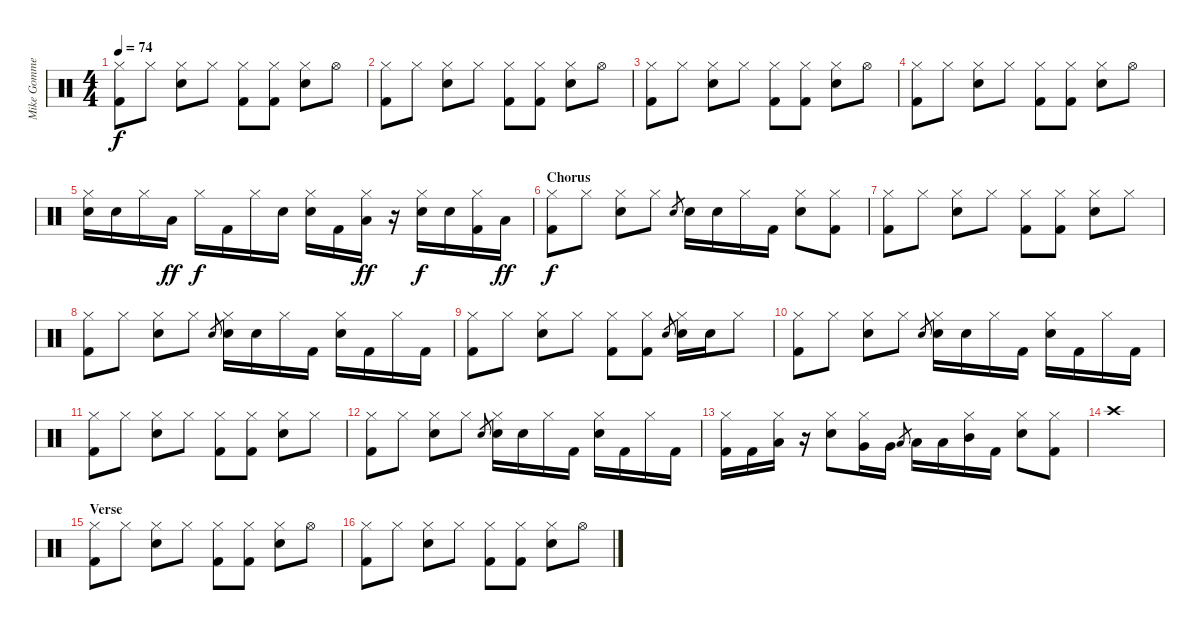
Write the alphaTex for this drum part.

\track ("Mike Gommeringer" "Mike Gomme") {instrument percussion}
\staff {score}
\articulation defaults
\ts (4 4)
\tempo 74
\clef neutral
\ks c
("Hi-Hat (closed)" "Kick (hit) 2").8{dy f} "Hi-Hat (closed)".8 ("Hi-Hat (closed)" "Snare (hit) 2").8 "Hi-Hat (closed)".8 ("Hi-Hat (closed)" "Kick (hit) 2").8 ("Hi-Hat (closed)" "Kick (hit) 2").8 ("Hi-Hat (closed)" "Snare (hit) 2").8 "Hi-Hat (open)".8 |
("Hi-Hat (closed)" "Kick (hit) 2").8 "Hi-Hat (closed)".8 ("Hi-Hat (closed)" "Snare (hit) 2").8 "Hi-Hat (closed)".8 ("Hi-Hat (closed)" "Kick (hit) 2").8 ("Hi-Hat (closed)" "Kick (hit) 2").8 ("Hi-Hat (closed)" "Snare (hit) 2").8 "Hi-Hat (open)".8 |
("Hi-Hat (closed)" "Kick (hit) 2").8 "Hi-Hat (closed)".8 ("Hi-Hat (closed)" "Snare (hit) 2").8 "Hi-Hat (closed)".8 ("Hi-Hat (closed)" "Kick (hit) 2").8 ("Hi-Hat (closed)" "Kick (hit) 2").8 ("Hi-Hat (closed)" "Snare (hit) 2").8 "Hi-Hat (open)".8 |
("Hi-Hat (closed)" "Kick (hit) 2").8 "Hi-Hat (closed)".8 ("Hi-Hat (closed)" "Snare (hit) 2").8 "Hi-Hat (closed)".8 ("Hi-Hat (closed)" "Kick (hit) 2").8 ("Hi-Hat (closed)" "Kick (hit) 2").8 ("Hi-Hat (closed)" "Snare (hit) 2").8 "Hi-Hat (open)".8 |
("Hi-Hat (closed)" "Snare (hit) 2").16 "Snare (hit) 2".16 "Hi-Hat (closed)".16 "Low Tom (hit)".16{dy ff} "Hi-Hat (closed)".16{dy f} "Kick (hit) 2".16 "Hi-Hat (closed)".16 "Snare (hit) 2".16 ("Hi-Hat (closed)" "Snare (hit) 2").16 "Kick (hit) 2".16 ("Hi-Hat (closed)" "Low Tom (hit)").16{dy ff} r.16 ("Hi-Hat (closed)" "Snare (hit) 2").16{dy f} "Snare (hit) 2".16 ("Hi-Hat (closed)" "Kick (hit) 2").16 "Low Tom (hit)".16{dy ff} |
\section ("" "Chorus")
("Hi-Hat (closed)" "Kick (hit) 2").8{dy f} "Hi-Hat (closed)".8 ("Hi-Hat (closed)" "Snare (hit) 2").8 "Hi-Hat (closed)".8 "Snare (hit) 2".8{gr} "Snare (hit) 2".16 "Snare (hit) 2".16 "Hi-Hat (closed)".16 "Kick (hit) 2".16 ("Hi-Hat (closed)" "Snare (hit) 2").8 ("Hi-Hat (closed)" "Kick (hit) 2").8 |
("Hi-Hat (closed)" "Kick (hit) 2").8 "Hi-Hat (closed)".8 ("Hi-Hat (closed)" "Snare (hit) 2").8 "Hi-Hat (closed)".8 ("Hi-Hat (closed)" "Kick (hit) 2").8 ("Hi-Hat (closed)" "Kick (hit) 2").8 ("Hi-Hat (closed)" "Snare (hit) 2").8 "Hi-Hat (closed)".8 |
("Hi-Hat (closed)" "Kick (hit) 2").8 "Hi-Hat (closed)".8 ("Hi-Hat (closed)" "Snare (hit) 2").8 "Hi-Hat (closed)".8 "Snare (hit) 2".8{gr} ("Hi-Hat (closed)" "Snare (hit) 2").16 "Snare (hit) 2".16 "Hi-Hat (closed)".16 "Kick (hit) 2".16 ("Hi-Hat (closed)" "Snare (hit) 2").16 "Kick (hit) 2".16 "Hi-Hat (closed)".16 "Kick (hit) 2".16 |
("Hi-Hat (closed)" "Kick (hit) 2").8 "Hi-Hat (closed)".8 ("Hi-Hat (closed)" "Snare (hit) 2").8 "Hi-Hat (closed)".8 ("Hi-Hat (closed)" "Kick (hit) 2").8 ("Hi-Hat (closed)" "Kick (hit) 2").8 "Snare (hit) 2".8{gr} ("Hi-Hat (closed)" "Snare (hit) 2").16 "Snare (hit) 2".16 "Hi-Hat (closed)".8 |
("Hi-Hat (closed)" "Kick (hit) 2").8 "Hi-Hat (closed)".8 ("Hi-Hat (closed)" "Snare (hit) 2").8 "Hi-Hat (closed)".8 "Snare (hit) 2".8{gr} ("Hi-Hat (closed)" "Snare (hit) 2").16 "Snare (hit) 2".16 "Hi-Hat (closed)".16 "Kick (hit) 2".16 ("Hi-Hat (closed)" "Snare (hit) 2").16 "Kick (hit) 2".16 "Hi-Hat (closed)".16 "Kick (hit) 2".16 |
("Hi-Hat (closed)" "Kick (hit) 2").8 "Hi-Hat (closed)".8 ("Hi-Hat (closed)" "Snare (hit) 2").8 "Hi-Hat (closed)".8 ("Hi-Hat (closed)" "Kick (hit) 2").8 ("Hi-Hat (closed)" "Kick (hit) 2").8 ("Hi-Hat (closed)" "Snare (hit) 2").8 "Hi-Hat (closed)".8 |
("Hi-Hat (closed)" "Kick (hit) 2").8 "Hi-Hat (closed)".8 ("Hi-Hat (closed)" "Snare (hit) 2").8 "Hi-Hat (closed)".8 "Snare (hit) 2".8{gr} ("Hi-Hat (closed)" "Snare (hit) 2").16 "Snare (hit) 2".16 "Hi-Hat (closed)".16 "Kick (hit) 2".16 ("Hi-Hat (closed)" "Snare (hit) 2").16 "Kick (hit) 2".16 "Hi-Hat (closed)".16 "Kick (hit) 2".16 |
("Hi-Hat (closed)" "Kick (hit) 2").16 "Kick (hit) 2".16 ("Hi-Hat (closed)" "Low Tom (hit)").16 r.16 ("Hi-Hat (closed)" "Snare (hit) 2").8 ("Hi-Hat (closed)" "Very Low Tom (hit)").16 "Very Low Tom (hit)".16 "Low Tom (hit)".8{gr} "Low Tom (hit)".16 "Low Tom (hit)".16 ("Hi-Hat (closed)" "Mid Tom (hit)").16 "Kick (hit) 2".16 ("Hi-Hat (closed)" "Snare (hit) 2").8 ("Hi-Hat (closed)" "Kick (hit) 2").8 |
"Crash high (hit)".1 |
\section ("" "Verse")
("Hi-Hat (closed)" "Kick (hit) 2").8 "Hi-Hat (closed)".8 ("Hi-Hat (closed)" "Snare (hit) 2").8 "Hi-Hat (closed)".8 ("Hi-Hat (closed)" "Kick (hit) 2").8 ("Hi-Hat (closed)" "Kick (hit) 2").8 ("Hi-Hat (closed)" "Snare (hit) 2").8 "Hi-Hat (open)".8 |
("Hi-Hat (closed)" "Kick (hit) 2").8 "Hi-Hat (closed)".8 ("Hi-Hat (closed)" "Snare (hit) 2").8 "Hi-Hat (closed)".8 ("Hi-Hat (closed)" "Kick (hit) 2").8 ("Hi-Hat (closed)" "Kick (hit) 2").8 ("Hi-Hat (closed)" "Snare (hit) 2").8 "Hi-Hat (open)".8
